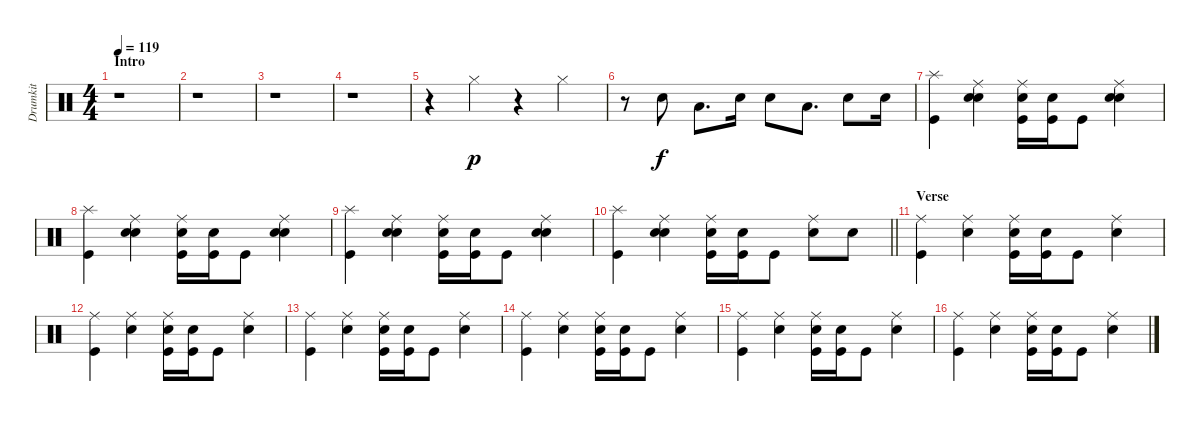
\track ("Drumkit" "Drumkit") {instrument percussion}
\staff {score}
\articulation defaults
\ts (4 4)
\section ("" "Intro")
\tempo 119
\clef neutral
\ks c
r.1{dy p} |
r.1 |
r.1 |
r.1 |
r.4 "Hi-Hat (closed)".4 r.4 "Hi-Hat (closed)".4 |
r.8 "Snare (hit) 2".8{dy f} "Low Tom (hit)".8{d} "Snare (hit) 2".16 "Snare (hit) 2".8 "Low Tom (hit)".8{d} "Snare (hit) 2".8 "Snare (hit) 2".16 |
("Kick (hit)" "Splash (hit)").4 ("Hand Clap (hit)" "Snare (hit) 2" "Ride (middle)").4 ("Kick (hit)" "Snare (hit) 2" "Ride (middle)").16 ("Kick (hit)" "Snare (hit) 2").16 "Kick (hit)".8 ("Hand Clap (hit)" "Snare (hit) 2" "Ride (middle)").4 |
("Kick (hit)" "Splash (hit)").4 ("Hand Clap (hit)" "Snare (hit) 2" "Ride (middle)").4 ("Kick (hit)" "Snare (hit) 2" "Ride (middle)").16 ("Kick (hit)" "Snare (hit) 2").16 "Kick (hit)".8 ("Hand Clap (hit)" "Snare (hit) 2" "Ride (middle)").4 |
("Kick (hit)" "Splash (hit)").4 ("Hand Clap (hit)" "Snare (hit) 2" "Ride (middle)").4 ("Kick (hit)" "Snare (hit) 2" "Ride (middle)").16 ("Kick (hit)" "Snare (hit) 2").16 "Kick (hit)".8 ("Hand Clap (hit)" "Snare (hit) 2" "Ride (middle)").4 |
\barLineRight lightlight
("Kick (hit)" "Splash (hit)").4 ("Hand Clap (hit)" "Snare (hit) 2" "Ride (middle)").4 ("Kick (hit)" "Snare (hit) 2" "Ride (middle)").16 ("Kick (hit)" "Snare (hit) 2").16 "Kick (hit)".8 ("Snare (hit) 2" "Ride (middle)").8 "Snare (hit) 2".8 |
\section ("" "Verse")
("Kick (hit)" "Ride (middle)").4 ("Snare (hit) 2" "Ride (middle)").4 ("Kick (hit)" "Snare (hit) 2" "Ride (middle)").16 ("Kick (hit)" "Snare (hit) 2").16 "Kick (hit)".8 ("Snare (hit) 2" "Ride (middle)").4 |
("Kick (hit)" "Ride (middle)").4 ("Snare (hit) 2" "Ride (middle)").4 ("Kick (hit)" "Snare (hit) 2" "Ride (middle)").16 ("Kick (hit)" "Snare (hit) 2").16 "Kick (hit)".8 ("Snare (hit) 2" "Ride (middle)").4 |
("Kick (hit)" "Ride (middle)").4 ("Snare (hit) 2" "Ride (middle)").4 ("Kick (hit)" "Snare (hit) 2" "Ride (middle)").16 ("Kick (hit)" "Snare (hit) 2").16 "Kick (hit)".8 ("Snare (hit) 2" "Ride (middle)").4 |
("Kick (hit)" "Ride (middle)").4 ("Snare (hit) 2" "Ride (middle)").4 ("Kick (hit)" "Snare (hit) 2" "Ride (middle)").16 ("Kick (hit)" "Snare (hit) 2").16 "Kick (hit)".8 ("Snare (hit) 2" "Ride (middle)").4 |
("Kick (hit)" "Ride (middle)").4 ("Snare (hit) 2" "Ride (middle)").4 ("Kick (hit)" "Snare (hit) 2" "Ride (middle)").16 ("Kick (hit)" "Snare (hit) 2").16 "Kick (hit)".8 ("Snare (hit) 2" "Ride (middle)").4 |
("Kick (hit)" "Ride (middle)").4 ("Snare (hit) 2" "Ride (middle)").4 ("Kick (hit)" "Snare (hit) 2" "Ride (middle)").16 ("Kick (hit)" "Snare (hit) 2").16 "Kick (hit)".8 ("Snare (hit) 2" "Ride (middle)").4
